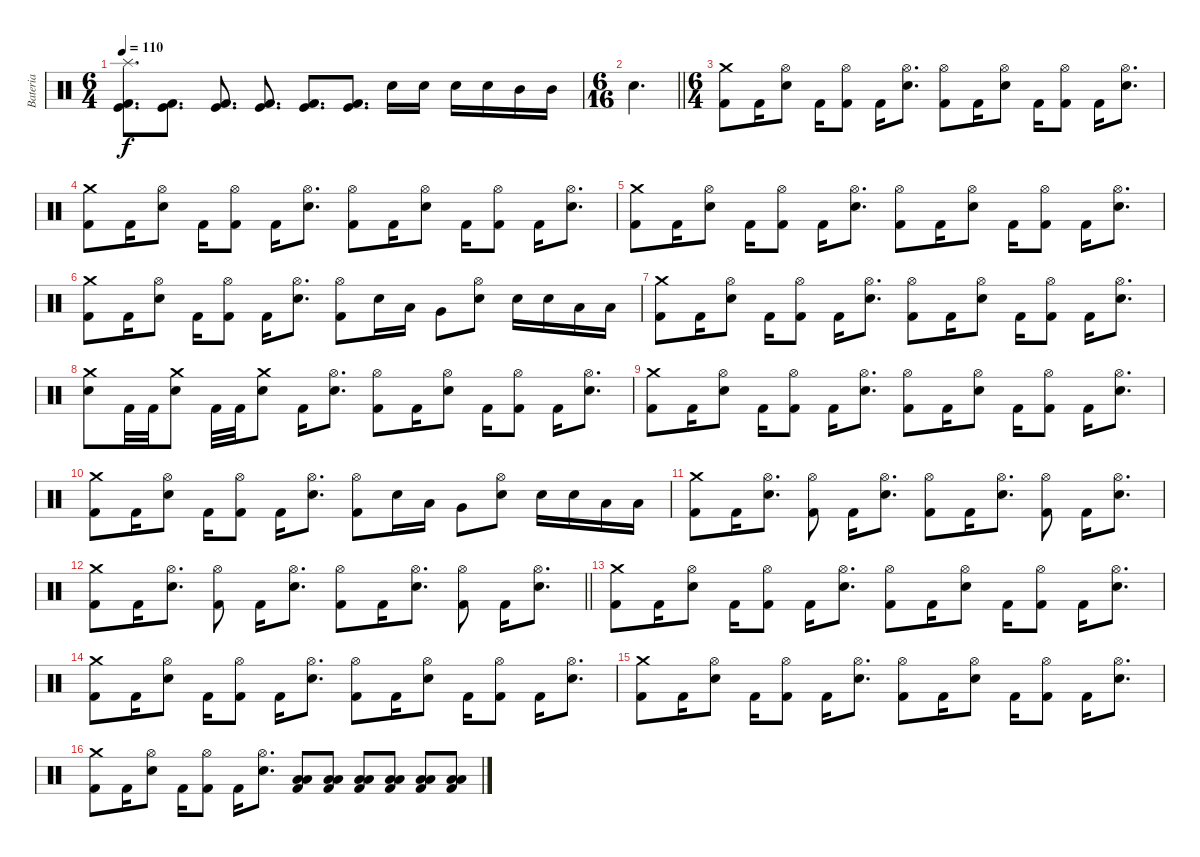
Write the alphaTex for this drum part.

\track ("Bateria" "Bateria") {instrument percussion}
\staff {score}
\articulation defaults
\ts (6 4)
\tempo 110
\clef neutral
\ks c
("Splash (hit)" "Kick (hit)" "Kick (hit) 2").8{d dy f} ("Kick (hit)" "Kick (hit) 2").8{d} ("Kick (hit)" "Kick (hit) 2").8{d} ("Kick (hit)" "Kick (hit) 2").8{d} ("Kick (hit)" "Kick (hit) 2").8{d} ("Kick (hit)" "Kick (hit) 2").8{d} "Snare (hit) 2".16 "Snare (hit) 2".16 "Snare (hit) 2".16 "Snare (hit) 2".16 "Mid Tom (hit)".16 "Mid Tom (hit)".16 |
\ts (6 16)
\barLineRight lightlight "Snare (hit) 2".4{d}
|
\ts (6 4)
("Crash medium (hit)" "Kick (hit) 2").8 "Kick (hit) 2".16 ("Hi-Hat (open)" "Snare (hit) 2").8 "Kick (hit) 2".16 ("Hi-Hat (open)" "Kick (hit) 2").8 "Kick (hit) 2".16 ("Hi-Hat (open)" "Snare (hit) 2").8{d} ("Hi-Hat (open)" "Kick (hit) 2").8 "Kick (hit) 2".16 ("Hi-Hat (open)" "Snare (hit) 2").8 "Kick (hit) 2".16 ("Hi-Hat (open)" "Kick (hit) 2").8 "Kick (hit) 2".16 ("Hi-Hat (open)" "Snare (hit) 2").8{d} |
("Crash medium (hit)" "Kick (hit) 2").8 "Kick (hit) 2".16 ("Hi-Hat (open)" "Snare (hit) 2").8 "Kick (hit) 2".16 ("Hi-Hat (open)" "Kick (hit) 2").8 "Kick (hit) 2".16 ("Hi-Hat (open)" "Snare (hit) 2").8{d} ("Hi-Hat (open)" "Kick (hit) 2").8 "Kick (hit) 2".16 ("Hi-Hat (open)" "Snare (hit) 2").8 "Kick (hit) 2".16 ("Hi-Hat (open)" "Kick (hit) 2").8 "Kick (hit) 2".16 ("Hi-Hat (open)" "Snare (hit) 2").8{d} |
("Crash medium (hit)" "Kick (hit) 2").8 "Kick (hit) 2".16 ("Hi-Hat (open)" "Snare (hit) 2").8 "Kick (hit) 2".16 ("Hi-Hat (open)" "Kick (hit) 2").8 "Kick (hit) 2".16 ("Hi-Hat (open)" "Snare (hit) 2").8{d} ("Hi-Hat (open)" "Kick (hit) 2").8 "Kick (hit) 2".16 ("Hi-Hat (open)" "Snare (hit) 2").8 "Kick (hit) 2".16 ("Hi-Hat (open)" "Kick (hit) 2").8 "Kick (hit) 2".16 ("Hi-Hat (open)" "Snare (hit) 2").8{d} |
("Crash medium (hit)" "Kick (hit) 2").8 "Kick (hit) 2".16 ("Hi-Hat (open)" "Snare (hit) 2").8 "Kick (hit) 2".16 ("Hi-Hat (open)" "Kick (hit) 2").8 "Kick (hit) 2".16 ("Hi-Hat (open)" "Snare (hit) 2").8{d} ("Hi-Hat (open)" "Kick (hit) 2").8 "Snare (hit) 2".16 "Low Tom (hit)".16 "Very Low Tom (hit)".8 ("Hi-Hat (open)" "Snare (hit) 2").8 "Snare (hit) 2".16 "Snare (hit) 2".16 "Low Tom (hit)".16 "Low Tom (hit)".16 |
("Crash medium (hit)" "Kick (hit) 2").8 "Kick (hit) 2".16 ("Hi-Hat (open)" "Snare (hit) 2").8 "Kick (hit) 2".16 ("Hi-Hat (open)" "Kick (hit) 2").8 "Kick (hit) 2".16 ("Hi-Hat (open)" "Snare (hit) 2").8{d} ("Hi-Hat (open)" "Kick (hit) 2").8 "Kick (hit) 2".16 ("Hi-Hat (open)" "Snare (hit) 2").8 "Kick (hit) 2".16 ("Hi-Hat (open)" "Kick (hit) 2").8 "Kick (hit) 2".16 ("Hi-Hat (open)" "Snare (hit) 2").8{d} |
("Crash medium (hit)" "Snare (hit) 2").8 "Kick (hit) 2".32 "Kick (hit) 2".32 ("Crash medium (hit)" "Snare (hit) 2").8 "Kick (hit) 2".32 "Kick (hit) 2".32 ("Crash medium (hit)" "Snare (hit) 2").8 "Kick (hit) 2".16 ("Hi-Hat (open)" "Snare (hit) 2").8{d} ("Hi-Hat (open)" "Kick (hit) 2").8 "Kick (hit) 2".16 ("Hi-Hat (open)" "Snare (hit) 2").8 "Kick (hit) 2".16 ("Hi-Hat (open)" "Kick (hit) 2").8 "Kick (hit) 2".16 ("Hi-Hat (open)" "Snare (hit) 2").8{d} |
("Crash medium (hit)" "Kick (hit) 2").8 "Kick (hit) 2".16 ("Hi-Hat (open)" "Snare (hit) 2").8 "Kick (hit) 2".16 ("Hi-Hat (open)" "Kick (hit) 2").8 "Kick (hit) 2".16 ("Hi-Hat (open)" "Snare (hit) 2").8{d} ("Hi-Hat (open)" "Kick (hit) 2").8 "Kick (hit) 2".16 ("Hi-Hat (open)" "Snare (hit) 2").8 "Kick (hit) 2".16 ("Hi-Hat (open)" "Kick (hit) 2").8 "Kick (hit) 2".16 ("Hi-Hat (open)" "Snare (hit) 2").8{d} |
("Crash medium (hit)" "Kick (hit) 2").8 "Kick (hit) 2".16 ("Hi-Hat (open)" "Snare (hit) 2").8 "Kick (hit) 2".16 ("Hi-Hat (open)" "Kick (hit) 2").8 "Kick (hit) 2".16 ("Hi-Hat (open)" "Snare (hit) 2").8{d} ("Hi-Hat (open)" "Kick (hit) 2").8 "Snare (hit) 2".16 "Low Tom (hit)".16 "Very Low Tom (hit)".8 ("Hi-Hat (open)" "Snare (hit) 2").8 "Snare (hit) 2".16 "Snare (hit) 2".16 "Low Tom (hit)".16 "Low Tom (hit)".16 |
("Crash medium (hit)" "Kick (hit) 2").8 "Kick (hit) 2".16 ("Hi-Hat (open)" "Snare (hit) 2").8{d} ("Hi-Hat (open)" "Kick (hit) 2").8 "Kick (hit) 2".16 ("Hi-Hat (open)" "Snare (hit) 2").8{d} ("Hi-Hat (open)" "Kick (hit) 2").8 "Kick (hit) 2".16 ("Hi-Hat (open)" "Snare (hit) 2").8{d} ("Hi-Hat (open)" "Kick (hit) 2").8 "Kick (hit) 2".16 ("Hi-Hat (open)" "Snare (hit) 2").8{d} |
\barLineRight lightlight
("Crash medium (hit)" "Kick (hit) 2").8 "Kick (hit) 2".16 ("Hi-Hat (open)" "Snare (hit) 2").8{d} ("Hi-Hat (open)" "Kick (hit) 2").8 "Kick (hit) 2".16 ("Hi-Hat (open)" "Snare (hit) 2").8{d} ("Hi-Hat (open)" "Kick (hit) 2").8 "Kick (hit) 2".16 ("Hi-Hat (open)" "Snare (hit) 2").8{d} ("Hi-Hat (open)" "Kick (hit) 2").8 "Kick (hit) 2".16 ("Hi-Hat (open)" "Snare (hit) 2").8{d} |
("Crash medium (hit)" "Kick (hit) 2").8 "Kick (hit) 2".16 ("Hi-Hat (open)" "Snare (hit) 2").8 "Kick (hit) 2".16 ("Hi-Hat (open)" "Kick (hit) 2").8 "Kick (hit) 2".16 ("Hi-Hat (open)" "Snare (hit) 2").8{d} ("Hi-Hat (open)" "Kick (hit) 2").8 "Kick (hit) 2".16 ("Hi-Hat (open)" "Snare (hit) 2").8 "Kick (hit) 2".16 ("Hi-Hat (open)" "Kick (hit) 2").8 "Kick (hit) 2".16 ("Hi-Hat (open)" "Snare (hit) 2").8{d} |
("Crash medium (hit)" "Kick (hit) 2").8 "Kick (hit) 2".16 ("Hi-Hat (open)" "Snare (hit) 2").8 "Kick (hit) 2".16 ("Hi-Hat (open)" "Kick (hit) 2").8 "Kick (hit) 2".16 ("Hi-Hat (open)" "Snare (hit) 2").8{d} ("Hi-Hat (open)" "Kick (hit) 2").8 "Kick (hit) 2".16 ("Hi-Hat (open)" "Snare (hit) 2").8 "Kick (hit) 2".16 ("Hi-Hat (open)" "Kick (hit) 2").8 "Kick (hit) 2".16 ("Hi-Hat (open)" "Snare (hit) 2").8{d} |
("Crash medium (hit)" "Kick (hit) 2").8 "Kick (hit) 2".16 ("Hi-Hat (open)" "Snare (hit) 2").8 "Kick (hit) 2".16 ("Hi-Hat (open)" "Kick (hit) 2").8 "Kick (hit) 2".16 ("Hi-Hat (open)" "Snare (hit) 2").8{d} ("Hi-Hat (open)" "Kick (hit) 2").8 "Kick (hit) 2".16 ("Hi-Hat (open)" "Snare (hit) 2").8 "Kick (hit) 2".16 ("Hi-Hat (open)" "Kick (hit) 2").8 "Kick (hit) 2".16 ("Hi-Hat (open)" "Snare (hit) 2").8{d} |
("Crash medium (hit)" "Kick (hit) 2").8 "Kick (hit) 2".16 ("Hi-Hat (open)" "Snare (hit) 2").8 "Kick (hit) 2".16 ("Hi-Hat (open)" "Kick (hit) 2").8 "Kick (hit) 2".16 ("Hi-Hat (open)" "Snare (hit) 2").8{d} ("Low Tom (hit)" "Low Floor Tom (hit)" "Kick (hit) 2").8 ("Low Tom (hit)" "Low Floor Tom (hit)" "Kick (hit) 2").8 ("Low Tom (hit)" "Low Floor Tom (hit)" "Kick (hit) 2").8 ("Low Tom (hit)" "Low Floor Tom (hit)" "Kick (hit) 2").8 ("Low Tom (hit)" "Low Floor Tom (hit)" "Kick (hit) 2").8 ("Low Tom (hit)" "Low Floor Tom (hit)" "Kick (hit) 2").8
